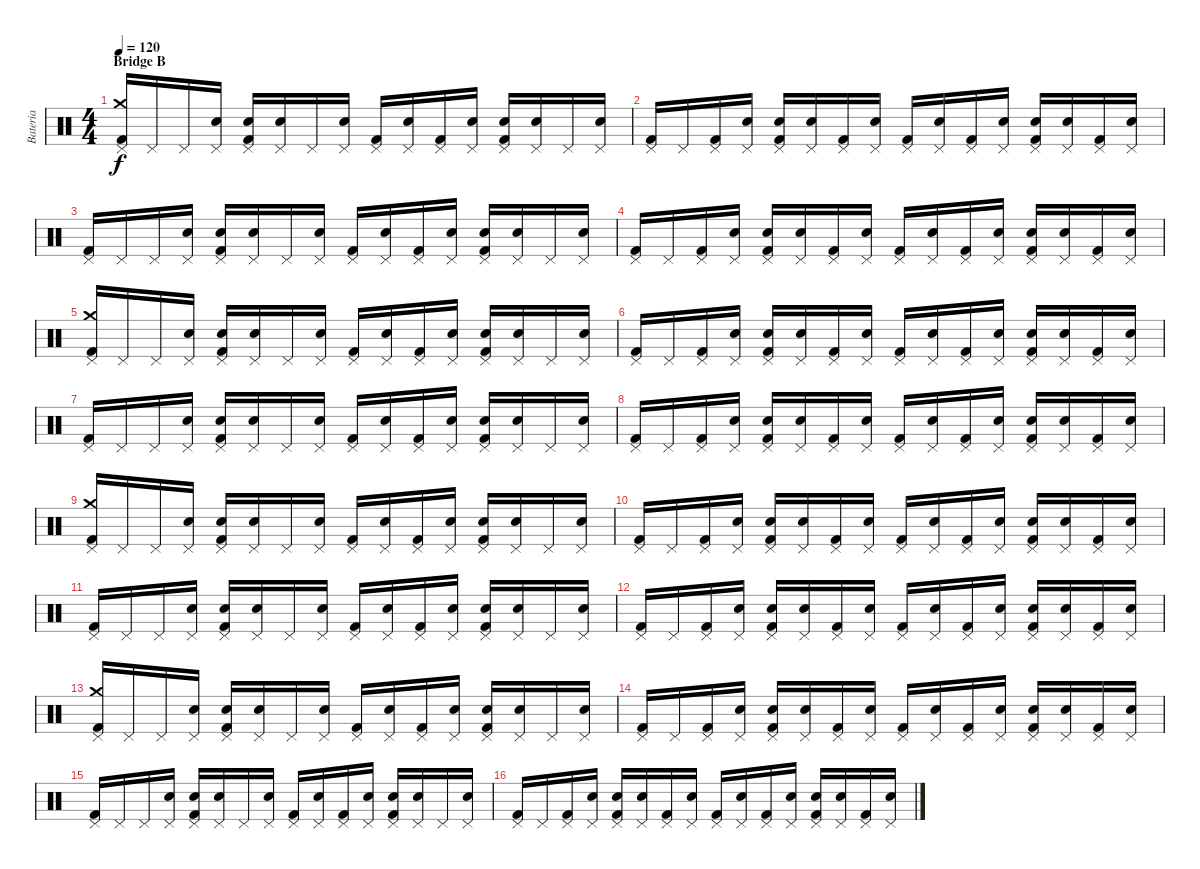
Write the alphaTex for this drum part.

\track ("Bateria" "Bateria") {instrument percussion}
\staff {score}
\articulation defaults
\ts (4 4)
\section ("" "Bridge B")
\tempo 120
\clef neutral
\ks c
("Kick (hit) 2" "Crash medium (hit)" "Pedal Hi-Hat (hit)").16{dy f} "Pedal Hi-Hat (hit)".16 "Pedal Hi-Hat (hit)".16 ("Snare (hit)" "Pedal Hi-Hat (hit)").16 ("Kick (hit) 2" "Snare (hit) 2" "Pedal Hi-Hat (hit)").16 ("Snare (hit)" "Pedal Hi-Hat (hit)").16 "Pedal Hi-Hat (hit)".16 ("Snare (hit)" "Pedal Hi-Hat (hit)").16 ("Kick (hit) 2" "Pedal Hi-Hat (hit)").16 ("Snare (hit)" "Pedal Hi-Hat (hit)").16 ("Kick (hit) 2" "Pedal Hi-Hat (hit)").16 ("Snare (hit)" "Pedal Hi-Hat (hit)").16 ("Kick (hit) 2" "Snare (hit) 2" "Pedal Hi-Hat (hit)").16 ("Snare (hit)" "Pedal Hi-Hat (hit)").16 "Pedal Hi-Hat (hit)".16 ("Snare (hit)" "Pedal Hi-Hat (hit)").16 |
("Kick (hit) 2" "Pedal Hi-Hat (hit)").16 "Pedal Hi-Hat (hit)".16 ("Kick (hit) 2" "Pedal Hi-Hat (hit)").16 ("Snare (hit)" "Pedal Hi-Hat (hit)").16 ("Kick (hit) 2" "Snare (hit) 2" "Pedal Hi-Hat (hit)").16 ("Snare (hit)" "Pedal Hi-Hat (hit)").16 ("Kick (hit) 2" "Pedal Hi-Hat (hit)").16 ("Snare (hit)" "Pedal Hi-Hat (hit)").16 ("Kick (hit) 2" "Pedal Hi-Hat (hit)").16 ("Snare (hit)" "Pedal Hi-Hat (hit)").16 ("Kick (hit) 2" "Pedal Hi-Hat (hit)").16 ("Snare (hit)" "Pedal Hi-Hat (hit)").16 ("Kick (hit) 2" "Snare (hit) 2" "Pedal Hi-Hat (hit)").16 ("Snare (hit)" "Pedal Hi-Hat (hit)").16 ("Kick (hit) 2" "Pedal Hi-Hat (hit)").16 ("Snare (hit)" "Pedal Hi-Hat (hit)").16 |
("Kick (hit) 2" "Pedal Hi-Hat (hit)").16 "Pedal Hi-Hat (hit)".16 "Pedal Hi-Hat (hit)".16 ("Snare (hit)" "Pedal Hi-Hat (hit)").16 ("Kick (hit) 2" "Snare (hit) 2" "Pedal Hi-Hat (hit)").16 ("Snare (hit)" "Pedal Hi-Hat (hit)").16 "Pedal Hi-Hat (hit)".16 ("Snare (hit)" "Pedal Hi-Hat (hit)").16 ("Kick (hit) 2" "Pedal Hi-Hat (hit)").16 ("Snare (hit)" "Pedal Hi-Hat (hit)").16 ("Kick (hit) 2" "Pedal Hi-Hat (hit)").16 ("Snare (hit)" "Pedal Hi-Hat (hit)").16 ("Kick (hit) 2" "Snare (hit) 2" "Pedal Hi-Hat (hit)").16 ("Snare (hit)" "Pedal Hi-Hat (hit)").16 "Pedal Hi-Hat (hit)".16 ("Snare (hit)" "Pedal Hi-Hat (hit)").16 |
("Kick (hit) 2" "Pedal Hi-Hat (hit)").16 "Pedal Hi-Hat (hit)".16 ("Kick (hit) 2" "Pedal Hi-Hat (hit)").16 ("Snare (hit)" "Pedal Hi-Hat (hit)").16 ("Kick (hit) 2" "Snare (hit) 2" "Pedal Hi-Hat (hit)").16 ("Snare (hit)" "Pedal Hi-Hat (hit)").16 ("Kick (hit) 2" "Pedal Hi-Hat (hit)").16 ("Snare (hit)" "Pedal Hi-Hat (hit)").16 ("Kick (hit) 2" "Pedal Hi-Hat (hit)").16 ("Snare (hit)" "Pedal Hi-Hat (hit)").16 ("Kick (hit) 2" "Pedal Hi-Hat (hit)").16 ("Snare (hit)" "Pedal Hi-Hat (hit)").16 ("Kick (hit) 2" "Snare (hit) 2" "Pedal Hi-Hat (hit)").16 ("Snare (hit)" "Pedal Hi-Hat (hit)").16 ("Kick (hit) 2" "Pedal Hi-Hat (hit)").16 ("Snare (hit)" "Pedal Hi-Hat (hit)").16 |
("Kick (hit) 2" "Crash medium (hit)" "Pedal Hi-Hat (hit)").16 "Pedal Hi-Hat (hit)".16 "Pedal Hi-Hat (hit)".16 ("Snare (hit)" "Pedal Hi-Hat (hit)").16 ("Kick (hit) 2" "Snare (hit) 2" "Pedal Hi-Hat (hit)").16 ("Snare (hit)" "Pedal Hi-Hat (hit)").16 "Pedal Hi-Hat (hit)".16 ("Snare (hit)" "Pedal Hi-Hat (hit)").16 ("Kick (hit) 2" "Pedal Hi-Hat (hit)").16 ("Snare (hit)" "Pedal Hi-Hat (hit)").16 ("Kick (hit) 2" "Pedal Hi-Hat (hit)").16 ("Snare (hit)" "Pedal Hi-Hat (hit)").16 ("Kick (hit) 2" "Snare (hit) 2" "Pedal Hi-Hat (hit)").16 ("Snare (hit)" "Pedal Hi-Hat (hit)").16 "Pedal Hi-Hat (hit)".16 ("Snare (hit)" "Pedal Hi-Hat (hit)").16 |
("Kick (hit) 2" "Pedal Hi-Hat (hit)").16 "Pedal Hi-Hat (hit)".16 ("Kick (hit) 2" "Pedal Hi-Hat (hit)").16 ("Snare (hit)" "Pedal Hi-Hat (hit)").16 ("Kick (hit) 2" "Snare (hit) 2" "Pedal Hi-Hat (hit)").16 ("Snare (hit)" "Pedal Hi-Hat (hit)").16 ("Kick (hit) 2" "Pedal Hi-Hat (hit)").16 ("Snare (hit)" "Pedal Hi-Hat (hit)").16 ("Kick (hit) 2" "Pedal Hi-Hat (hit)").16 ("Snare (hit)" "Pedal Hi-Hat (hit)").16 ("Kick (hit) 2" "Pedal Hi-Hat (hit)").16 ("Snare (hit)" "Pedal Hi-Hat (hit)").16 ("Kick (hit) 2" "Snare (hit) 2" "Pedal Hi-Hat (hit)").16 ("Snare (hit)" "Pedal Hi-Hat (hit)").16 ("Kick (hit) 2" "Pedal Hi-Hat (hit)").16 ("Snare (hit)" "Pedal Hi-Hat (hit)").16 |
("Kick (hit) 2" "Pedal Hi-Hat (hit)").16 "Pedal Hi-Hat (hit)".16 "Pedal Hi-Hat (hit)".16 ("Snare (hit)" "Pedal Hi-Hat (hit)").16 ("Kick (hit) 2" "Snare (hit) 2" "Pedal Hi-Hat (hit)").16 ("Snare (hit)" "Pedal Hi-Hat (hit)").16 "Pedal Hi-Hat (hit)".16 ("Snare (hit)" "Pedal Hi-Hat (hit)").16 ("Kick (hit) 2" "Pedal Hi-Hat (hit)").16 ("Snare (hit)" "Pedal Hi-Hat (hit)").16 ("Kick (hit) 2" "Pedal Hi-Hat (hit)").16 ("Snare (hit)" "Pedal Hi-Hat (hit)").16 ("Kick (hit) 2" "Snare (hit) 2" "Pedal Hi-Hat (hit)").16 ("Snare (hit)" "Pedal Hi-Hat (hit)").16 "Pedal Hi-Hat (hit)".16 ("Snare (hit)" "Pedal Hi-Hat (hit)").16 |
("Kick (hit) 2" "Pedal Hi-Hat (hit)").16 "Pedal Hi-Hat (hit)".16 ("Kick (hit) 2" "Pedal Hi-Hat (hit)").16 ("Snare (hit)" "Pedal Hi-Hat (hit)").16 ("Kick (hit) 2" "Snare (hit) 2" "Pedal Hi-Hat (hit)").16 ("Snare (hit)" "Pedal Hi-Hat (hit)").16 ("Kick (hit) 2" "Pedal Hi-Hat (hit)").16 ("Snare (hit)" "Pedal Hi-Hat (hit)").16 ("Kick (hit) 2" "Pedal Hi-Hat (hit)").16 ("Snare (hit)" "Pedal Hi-Hat (hit)").16 ("Kick (hit) 2" "Pedal Hi-Hat (hit)").16 ("Snare (hit)" "Pedal Hi-Hat (hit)").16 ("Kick (hit) 2" "Snare (hit) 2" "Pedal Hi-Hat (hit)").16 ("Snare (hit)" "Pedal Hi-Hat (hit)").16 ("Kick (hit) 2" "Pedal Hi-Hat (hit)").16 ("Snare (hit)" "Pedal Hi-Hat (hit)").16 |
("Kick (hit) 2" "Crash medium (hit)" "Pedal Hi-Hat (hit)").16 "Pedal Hi-Hat (hit)".16 "Pedal Hi-Hat (hit)".16 ("Snare (hit)" "Pedal Hi-Hat (hit)").16 ("Kick (hit) 2" "Snare (hit) 2" "Pedal Hi-Hat (hit)").16 ("Snare (hit)" "Pedal Hi-Hat (hit)").16 "Pedal Hi-Hat (hit)".16 ("Snare (hit)" "Pedal Hi-Hat (hit)").16 ("Kick (hit) 2" "Pedal Hi-Hat (hit)").16 ("Snare (hit)" "Pedal Hi-Hat (hit)").16 ("Kick (hit) 2" "Pedal Hi-Hat (hit)").16 ("Snare (hit)" "Pedal Hi-Hat (hit)").16 ("Kick (hit) 2" "Snare (hit) 2" "Pedal Hi-Hat (hit)").16 ("Snare (hit)" "Pedal Hi-Hat (hit)").16 "Pedal Hi-Hat (hit)".16 ("Snare (hit)" "Pedal Hi-Hat (hit)").16 |
("Kick (hit) 2" "Pedal Hi-Hat (hit)").16 "Pedal Hi-Hat (hit)".16 ("Kick (hit) 2" "Pedal Hi-Hat (hit)").16 ("Snare (hit)" "Pedal Hi-Hat (hit)").16 ("Kick (hit) 2" "Snare (hit) 2" "Pedal Hi-Hat (hit)").16 ("Snare (hit)" "Pedal Hi-Hat (hit)").16 ("Kick (hit) 2" "Pedal Hi-Hat (hit)").16 ("Snare (hit)" "Pedal Hi-Hat (hit)").16 ("Kick (hit) 2" "Pedal Hi-Hat (hit)").16 ("Snare (hit)" "Pedal Hi-Hat (hit)").16 ("Kick (hit) 2" "Pedal Hi-Hat (hit)").16 ("Snare (hit)" "Pedal Hi-Hat (hit)").16 ("Kick (hit) 2" "Snare (hit) 2" "Pedal Hi-Hat (hit)").16 ("Snare (hit)" "Pedal Hi-Hat (hit)").16 ("Kick (hit) 2" "Pedal Hi-Hat (hit)").16 ("Snare (hit)" "Pedal Hi-Hat (hit)").16 |
("Kick (hit) 2" "Pedal Hi-Hat (hit)").16 "Pedal Hi-Hat (hit)".16 "Pedal Hi-Hat (hit)".16 ("Snare (hit)" "Pedal Hi-Hat (hit)").16 ("Kick (hit) 2" "Snare (hit) 2" "Pedal Hi-Hat (hit)").16 ("Snare (hit)" "Pedal Hi-Hat (hit)").16 "Pedal Hi-Hat (hit)".16 ("Snare (hit)" "Pedal Hi-Hat (hit)").16 ("Kick (hit) 2" "Pedal Hi-Hat (hit)").16 ("Snare (hit)" "Pedal Hi-Hat (hit)").16 ("Kick (hit) 2" "Pedal Hi-Hat (hit)").16 ("Snare (hit)" "Pedal Hi-Hat (hit)").16 ("Kick (hit) 2" "Snare (hit) 2" "Pedal Hi-Hat (hit)").16 ("Snare (hit)" "Pedal Hi-Hat (hit)").16 "Pedal Hi-Hat (hit)".16 ("Snare (hit)" "Pedal Hi-Hat (hit)").16 |
("Kick (hit) 2" "Pedal Hi-Hat (hit)").16 "Pedal Hi-Hat (hit)".16 ("Kick (hit) 2" "Pedal Hi-Hat (hit)").16 ("Snare (hit)" "Pedal Hi-Hat (hit)").16 ("Kick (hit) 2" "Snare (hit) 2" "Pedal Hi-Hat (hit)").16 ("Snare (hit)" "Pedal Hi-Hat (hit)").16 ("Kick (hit) 2" "Pedal Hi-Hat (hit)").16 ("Snare (hit)" "Pedal Hi-Hat (hit)").16 ("Kick (hit) 2" "Pedal Hi-Hat (hit)").16 ("Snare (hit)" "Pedal Hi-Hat (hit)").16 ("Kick (hit) 2" "Pedal Hi-Hat (hit)").16 ("Snare (hit)" "Pedal Hi-Hat (hit)").16 ("Kick (hit) 2" "Snare (hit) 2" "Pedal Hi-Hat (hit)").16 ("Snare (hit)" "Pedal Hi-Hat (hit)").16 ("Kick (hit) 2" "Pedal Hi-Hat (hit)").16 ("Snare (hit)" "Pedal Hi-Hat (hit)").16 |
("Kick (hit) 2" "Crash medium (hit)" "Pedal Hi-Hat (hit)").16 "Pedal Hi-Hat (hit)".16 "Pedal Hi-Hat (hit)".16 ("Snare (hit)" "Pedal Hi-Hat (hit)").16 ("Kick (hit) 2" "Snare (hit) 2" "Pedal Hi-Hat (hit)").16 ("Snare (hit)" "Pedal Hi-Hat (hit)").16 "Pedal Hi-Hat (hit)".16 ("Snare (hit)" "Pedal Hi-Hat (hit)").16 ("Kick (hit) 2" "Pedal Hi-Hat (hit)").16 ("Snare (hit)" "Pedal Hi-Hat (hit)").16 ("Kick (hit) 2" "Pedal Hi-Hat (hit)").16 ("Snare (hit)" "Pedal Hi-Hat (hit)").16 ("Kick (hit) 2" "Snare (hit) 2" "Pedal Hi-Hat (hit)").16 ("Snare (hit)" "Pedal Hi-Hat (hit)").16 "Pedal Hi-Hat (hit)".16 ("Snare (hit)" "Pedal Hi-Hat (hit)").16 |
("Kick (hit) 2" "Pedal Hi-Hat (hit)").16 "Pedal Hi-Hat (hit)".16 ("Kick (hit) 2" "Pedal Hi-Hat (hit)").16 ("Snare (hit)" "Pedal Hi-Hat (hit)").16 ("Kick (hit) 2" "Snare (hit) 2" "Pedal Hi-Hat (hit)").16 ("Snare (hit)" "Pedal Hi-Hat (hit)").16 ("Kick (hit) 2" "Pedal Hi-Hat (hit)").16 ("Snare (hit)" "Pedal Hi-Hat (hit)").16 ("Kick (hit) 2" "Pedal Hi-Hat (hit)").16 ("Snare (hit)" "Pedal Hi-Hat (hit)").16 ("Kick (hit) 2" "Pedal Hi-Hat (hit)").16 ("Snare (hit)" "Pedal Hi-Hat (hit)").16 ("Kick (hit) 2" "Snare (hit) 2" "Pedal Hi-Hat (hit)").16 ("Snare (hit)" "Pedal Hi-Hat (hit)").16 ("Kick (hit) 2" "Pedal Hi-Hat (hit)").16 ("Snare (hit)" "Pedal Hi-Hat (hit)").16 |
("Kick (hit) 2" "Pedal Hi-Hat (hit)").16 "Pedal Hi-Hat (hit)".16 "Pedal Hi-Hat (hit)".16 ("Snare (hit)" "Pedal Hi-Hat (hit)").16 ("Kick (hit) 2" "Snare (hit) 2" "Pedal Hi-Hat (hit)").16 ("Snare (hit)" "Pedal Hi-Hat (hit)").16 "Pedal Hi-Hat (hit)".16 ("Snare (hit)" "Pedal Hi-Hat (hit)").16 ("Kick (hit) 2" "Pedal Hi-Hat (hit)").16 ("Snare (hit)" "Pedal Hi-Hat (hit)").16 ("Kick (hit) 2" "Pedal Hi-Hat (hit)").16 ("Snare (hit)" "Pedal Hi-Hat (hit)").16 ("Kick (hit) 2" "Snare (hit) 2" "Pedal Hi-Hat (hit)").16 ("Snare (hit)" "Pedal Hi-Hat (hit)").16 "Pedal Hi-Hat (hit)".16 ("Snare (hit)" "Pedal Hi-Hat (hit)").16 |
("Kick (hit) 2" "Pedal Hi-Hat (hit)").16 "Pedal Hi-Hat (hit)".16 ("Kick (hit) 2" "Pedal Hi-Hat (hit)").16 ("Snare (hit)" "Pedal Hi-Hat (hit)").16 ("Kick (hit) 2" "Snare (hit) 2" "Pedal Hi-Hat (hit)").16 ("Snare (hit)" "Pedal Hi-Hat (hit)").16 ("Kick (hit) 2" "Pedal Hi-Hat (hit)").16 ("Snare (hit)" "Pedal Hi-Hat (hit)").16 ("Kick (hit) 2" "Pedal Hi-Hat (hit)").16 ("Snare (hit)" "Pedal Hi-Hat (hit)").16 ("Kick (hit) 2" "Pedal Hi-Hat (hit)").16 ("Snare (hit)" "Pedal Hi-Hat (hit)").16 ("Kick (hit) 2" "Snare (hit) 2" "Pedal Hi-Hat (hit)").16 ("Snare (hit)" "Pedal Hi-Hat (hit)").16 ("Kick (hit) 2" "Pedal Hi-Hat (hit)").16 ("Snare (hit)" "Pedal Hi-Hat (hit)").16
